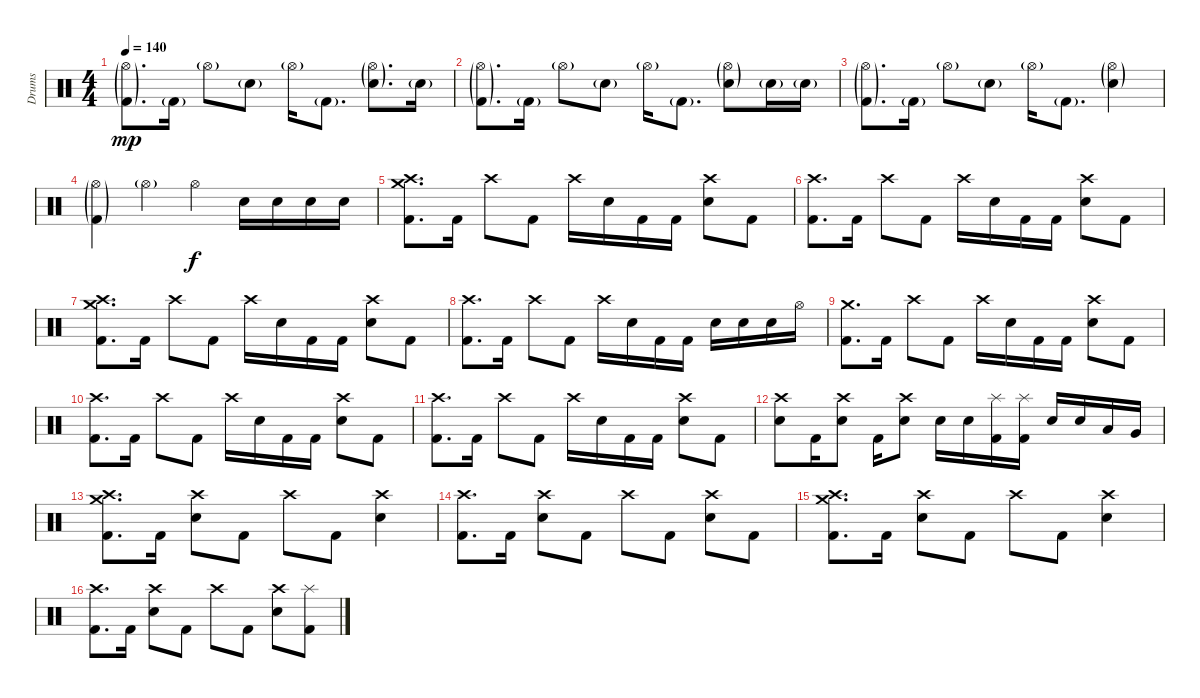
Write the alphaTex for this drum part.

\track ("Drums" "Drums") {instrument percussion}
\staff {score}
\articulation defaults
\ts (4 4)
\tempo 140
\clef neutral
\ks c
("Hi-Hat (open)"{g} "Kick (hit) 2"{g}).8{d dy mp} "Kick (hit) 2"{g}.16 "Hi-Hat (open)"{g}.8 "Electric Snare (hit)"{g}.8 "Hi-Hat (open)"{g}.16 "Kick (hit) 2"{g}.8{d} ("Hi-Hat (open)"{g} "Electric Snare (hit)"{g}).8{d} "Electric Snare (hit)"{g}.16 |
("Hi-Hat (open)"{g} "Kick (hit) 2"{g}).8{d} "Kick (hit) 2"{g}.16 "Hi-Hat (open)"{g}.8 "Electric Snare (hit)"{g}.8 "Hi-Hat (open)"{g}.16 "Kick (hit) 2"{g}.8{d} ("Hi-Hat (open)"{g} "Electric Snare (hit)"{g}).8 "Electric Snare (hit)"{g}.16 "Electric Snare (hit)"{g}.16 |
("Hi-Hat (open)"{g} "Kick (hit) 2"{g}).8{d} "Kick (hit) 2"{g}.16 "Hi-Hat (open)"{g}.8 "Electric Snare (hit)"{g}.8 "Hi-Hat (open)"{g}.16 "Kick (hit) 2"{g}.8{d} ("Hi-Hat (open)"{g} "Electric Snare (hit)"{g}).4 |
("Hi-Hat (open)"{g} "Kick (hit) 2"{g}).4 "Hi-Hat (open)"{g}.4 "Hi-Hat (open)".4{dy f} "Electric Snare (hit)".16 "Electric Snare (hit)".16 "Electric Snare (hit)".16 "Electric Snare (hit)".16 |
("Crash medium (hit)" "Crash high (hit)" "Kick (hit) 2").8{d} "Kick (hit) 2".16 "Crash high (hit)".8 "Kick (hit) 2".8 "Crash high (hit)".16 "Electric Snare (hit)".16 "Kick (hit) 2".16 "Kick (hit) 2".16 ("Crash high (hit)" "Electric Snare (hit)").8 "Kick (hit) 2".8 |
("Crash high (hit)" "Kick (hit) 2").8{d} "Kick (hit) 2".16 "Crash high (hit)".8 "Kick (hit) 2".8 "Crash high (hit)".16 "Electric Snare (hit)".16 "Kick (hit) 2".16 "Kick (hit) 2".16 ("Crash high (hit)" "Electric Snare (hit)").8 "Kick (hit) 2".8 |
("Crash medium (hit)" "Crash high (hit)" "Kick (hit) 2").8{d} "Kick (hit) 2".16 "Crash high (hit)".8 "Kick (hit) 2".8 "Crash high (hit)".16 "Electric Snare (hit)".16 "Kick (hit) 2".16 "Kick (hit) 2".16 ("Crash high (hit)" "Electric Snare (hit)").8 "Kick (hit) 2".8 |
("Crash high (hit)" "Kick (hit) 2").8{d} "Kick (hit) 2".16 "Crash high (hit)".8 "Kick (hit) 2".8 "Crash high (hit)".16 "Electric Snare (hit)".16 "Kick (hit) 2".16 "Kick (hit) 2".16 "Electric Snare (hit)".16 "Electric Snare (hit)".16 "Electric Snare (hit)".16 "Hi-Hat (open)".16 |
("Crash medium (hit)" "Kick (hit) 2").8{d} "Kick (hit) 2".16 "Crash high (hit)".8 "Kick (hit) 2".8 "Crash high (hit)".16 "Electric Snare (hit)".16 "Kick (hit) 2".16 "Kick (hit) 2".16 ("Crash high (hit)" "Electric Snare (hit)").8 "Kick (hit) 2".8 |
("Crash high (hit)" "Kick (hit) 2").8{d} "Kick (hit) 2".16 "Crash high (hit)".8 "Kick (hit) 2".8 "Crash high (hit)".16 "Electric Snare (hit)".16 "Kick (hit) 2".16 "Kick (hit) 2".16 ("Crash high (hit)" "Electric Snare (hit)").8 "Kick (hit) 2".8 |
("Crash high (hit)" "Kick (hit) 2").8{d} "Kick (hit) 2".16 "Crash high (hit)".8 "Kick (hit) 2".8 "Crash high (hit)".16 "Electric Snare (hit)".16 "Kick (hit) 2".16 "Kick (hit) 2".16 ("Crash high (hit)" "Electric Snare (hit)").8 "Kick (hit) 2".8 |
("Crash high (hit)" "Electric Snare (hit)").8 "Kick (hit) 2".16 ("Crash high (hit)" "Electric Snare (hit)").8 "Kick (hit) 2".16 ("Crash high (hit)" "Electric Snare (hit)").8 "Electric Snare (hit)".16 "Electric Snare (hit)".16 ("Splash (hit)" "Kick (hit) 2").16 ("Splash (hit)" "Kick (hit) 2").16 "Electric Snare (hit)".16 "Electric Snare (hit)".16 "Low Tom (hit)".16 "Very Low Tom (hit)".16 |
("Crash medium (hit)" "Crash high (hit)" "Kick (hit) 2").8{d} "Kick (hit) 2".16 ("Crash high (hit)" "Electric Snare (hit)").8 "Kick (hit) 2".8 "Crash high (hit)".8 "Kick (hit) 2".8 ("Crash high (hit)" "Electric Snare (hit)").4 |
("Crash high (hit)" "Kick (hit) 2").8{d} "Kick (hit) 2".16 ("Crash high (hit)" "Electric Snare (hit)").8 "Kick (hit) 2".8 "Crash high (hit)".8 "Kick (hit) 2".8 ("Crash high (hit)" "Electric Snare (hit)").8 "Kick (hit) 2".8 |
("Crash medium (hit)" "Crash high (hit)" "Kick (hit) 2").8{d} "Kick (hit) 2".16 ("Crash high (hit)" "Electric Snare (hit)").8 "Kick (hit) 2".8 "Crash high (hit)".8 "Kick (hit) 2".8 ("Crash high (hit)" "Electric Snare (hit)").4 |
("Crash high (hit)" "Kick (hit) 2").8{d} "Kick (hit) 2".16 ("Crash high (hit)" "Electric Snare (hit)").8 "Kick (hit) 2".8 "Crash high (hit)".8 "Kick (hit) 2".8 ("Crash high (hit)" "Electric Snare (hit)").8 ("Splash (hit)" "Kick (hit) 2").8
